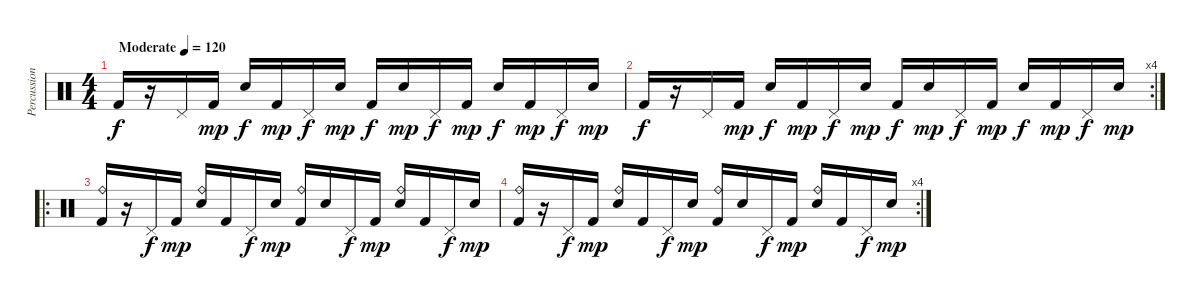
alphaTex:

\track ("Percussion" "Percussion") {instrument percussion}
\staff {score}
\articulation defaults
\ts (4 4)
\tempo (120 "Moderate")
\clef neutral
\ks c "Kick (hit) 2".16{dy f}
r.16 "Pedal Hi-Hat (hit)".16 "Kick (hit) 2".16{dy mp} "Electric Snare (hit)".16{dy f} "Kick (hit) 2".16{dy mp} "Pedal Hi-Hat (hit)".16{dy f} "Electric Snare (hit)".16{dy mp} "Kick (hit) 2".16{dy f} "Electric Snare (hit)".16{dy mp} "Pedal Hi-Hat (hit)".16{dy f} "Kick (hit) 2".16{dy mp} "Electric Snare (hit)".16{dy f} "Kick (hit) 2".16{dy mp} "Pedal Hi-Hat (hit)".16{dy f} "Electric Snare (hit)".16{dy mp} |
\rc 4 "Kick (hit) 2".16{dy f}
r.16 "Pedal Hi-Hat (hit)".16 "Kick (hit) 2".16{dy mp} "Electric Snare (hit)".16{dy f} "Kick (hit) 2".16{dy mp} "Pedal Hi-Hat (hit)".16{dy f} "Electric Snare (hit)".16{dy mp} "Kick (hit) 2".16{dy f} "Electric Snare (hit)".16{dy mp} "Pedal Hi-Hat (hit)".16{dy f} "Kick (hit) 2".16{dy mp} "Electric Snare (hit)".16{dy f} "Kick (hit) 2".16{dy mp} "Pedal Hi-Hat (hit)".16{dy f} "Electric Snare (hit)".16{dy mp} |
\ro
("Ride (bell)" "Kick (hit) 2").16 r.16 "Pedal Hi-Hat (hit)".16{dy f} "Kick (hit) 2".16{dy mp} ("Ride (bell)" "Electric Snare (hit)").16 "Kick (hit) 2".16 "Pedal Hi-Hat (hit)".16{dy f} "Electric Snare (hit)".16{dy mp} ("Ride (bell)" "Kick (hit) 2").16 "Electric Snare (hit)".16 "Pedal Hi-Hat (hit)".16{dy f} "Kick (hit) 2".16{dy mp} ("Ride (bell)" "Electric Snare (hit)").16 "Kick (hit) 2".16 "Pedal Hi-Hat (hit)".16{dy f} "Electric Snare (hit)".16{dy mp} |
\rc 4
("Ride (bell)" "Kick (hit) 2").16 r.16 "Pedal Hi-Hat (hit)".16{dy f} "Kick (hit) 2".16{dy mp} ("Ride (bell)" "Electric Snare (hit)").16 "Kick (hit) 2".16 "Pedal Hi-Hat (hit)".16{dy f} "Electric Snare (hit)".16{dy mp} ("Ride (bell)" "Kick (hit) 2").16 "Electric Snare (hit)".16 "Pedal Hi-Hat (hit)".16{dy f} "Kick (hit) 2".16{dy mp} ("Ride (bell)" "Electric Snare (hit)").16 "Kick (hit) 2".16 "Pedal Hi-Hat (hit)".16{dy f} "Electric Snare (hit)".16{dy mp}
